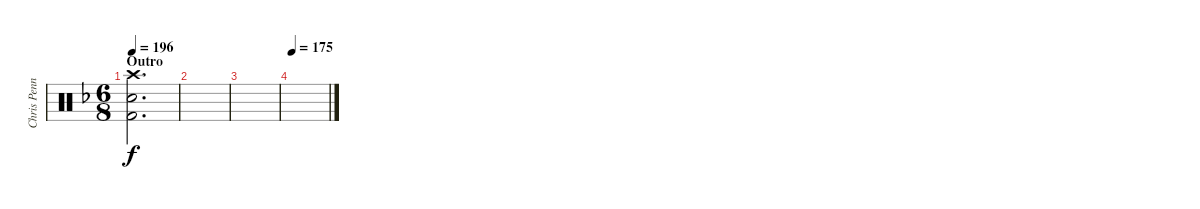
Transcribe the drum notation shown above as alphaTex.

\track ("Chris Pennie/Taylor Hawkins - Drum" "Chris Penn") {instrument percussion}
\staff {score}
\articulation defaults
\ts (6 8)
\section ("" "Outro")
\tempo 196
\clef neutral
\ks f
("Crash high (hit)" "Electric Snare (hit)" "Kick (hit) 2").2{d dy f} |
|
|
\tempo 175
